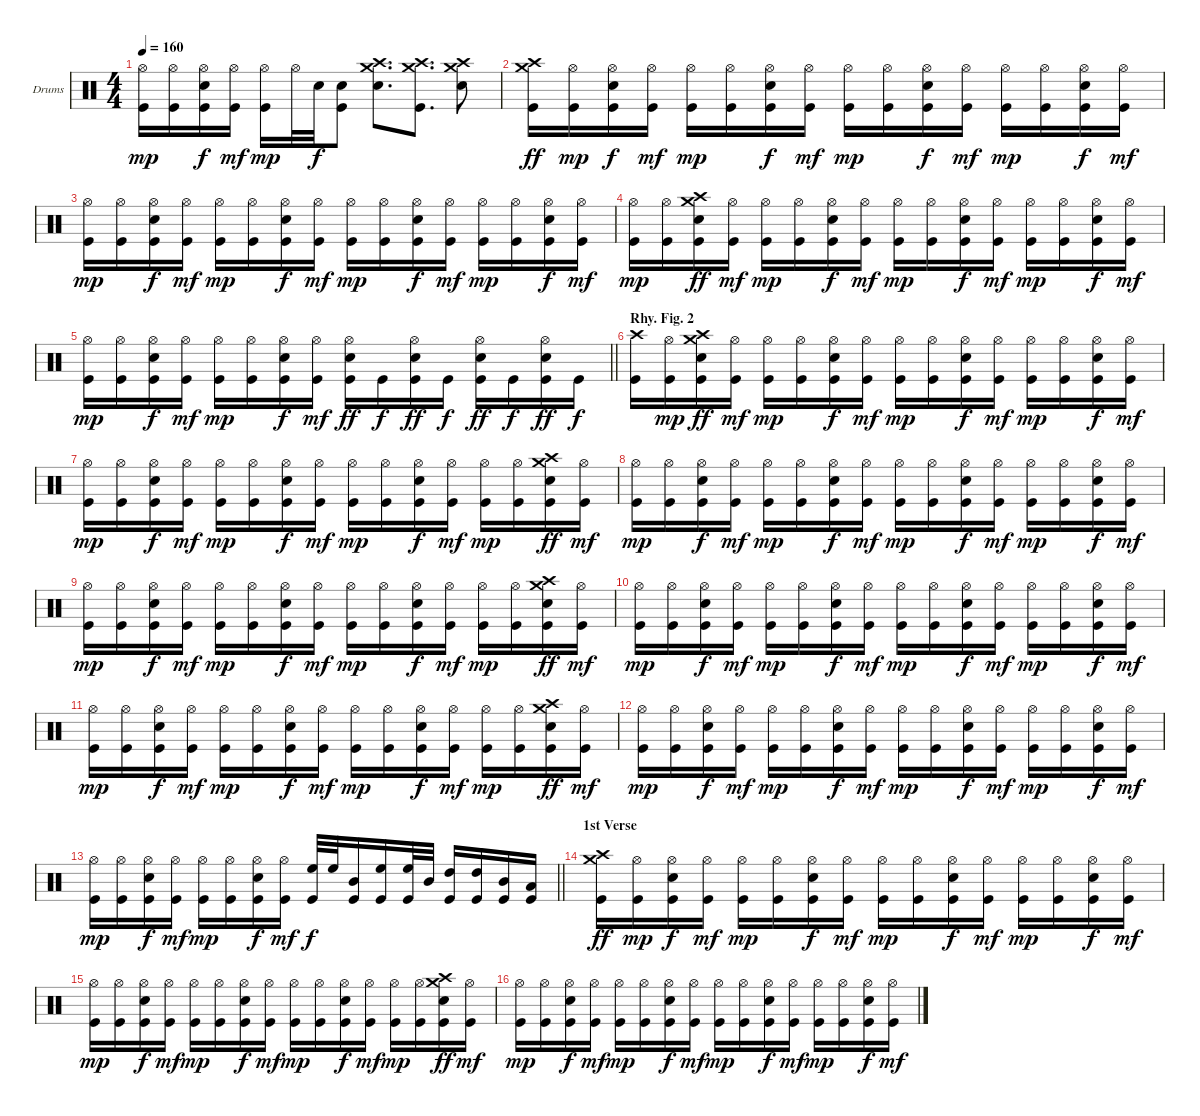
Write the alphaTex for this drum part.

\bracketExtendMode groupsimilarinstruments
\firstSystemTrackNameOrientation horizontal
\otherSystemsTrackNameOrientation horizontal
\track ("Drumkit" "Drums") {instrument percussion}
\staff {score}
\articulation defaults
\ts (4 4)
\tempo 160
\clef neutral
\ks c
("Hi-Hat (open)" "Kick (hit)").16{dy mp} ("Hi-Hat (open)" "Kick (hit)").16 ("Hi-Hat (open)" "Snare (hit) 2" "Kick (hit)").16{dy f} ("Hi-Hat (open)" "Kick (hit)").16{dy mf} ("Hi-Hat (open)" "Kick (hit)").16{dy mp} "Hi-Hat (open)".32 "Snare (hit) 2".32{dy f} ("Snare (hit) 2" "Kick (hit)").8 ("Crash medium (hit)" "Crash high (hit)" "Snare (hit) 2").8{d} ("Crash medium (hit)" "Crash high (hit)" "Kick (hit)").8{d} ("Crash medium (hit)" "Crash high (hit)" "Snare (hit) 2").8 |
("Crash medium (hit)" "Crash high (hit)" "Kick (hit)").16{dy ff} ("Hi-Hat (open)" "Kick (hit)").16{dy mp} ("Hi-Hat (open)" "Snare (hit) 2" "Kick (hit)").16{dy f} ("Hi-Hat (open)" "Kick (hit)").16{dy mf} ("Hi-Hat (open)" "Kick (hit)").16{dy mp} ("Hi-Hat (open)" "Kick (hit)").16 ("Hi-Hat (open)" "Snare (hit) 2" "Kick (hit)").16{dy f} ("Hi-Hat (open)" "Kick (hit)").16{dy mf} ("Hi-Hat (open)" "Kick (hit)").16{dy mp} ("Hi-Hat (open)" "Kick (hit)").16 ("Hi-Hat (open)" "Snare (hit) 2" "Kick (hit)").16{dy f} ("Hi-Hat (open)" "Kick (hit)").16{dy mf} ("Hi-Hat (open)" "Kick (hit)").16{dy mp} ("Hi-Hat (open)" "Kick (hit)").16 ("Hi-Hat (open)" "Snare (hit) 2" "Kick (hit)").16{dy f} ("Hi-Hat (open)" "Kick (hit)").16{dy mf} |
("Hi-Hat (open)" "Kick (hit)").16{dy mp} ("Hi-Hat (open)" "Kick (hit)").16 ("Hi-Hat (open)" "Snare (hit) 2" "Kick (hit)").16{dy f} ("Hi-Hat (open)" "Kick (hit)").16{dy mf} ("Hi-Hat (open)" "Kick (hit)").16{dy mp} ("Hi-Hat (open)" "Kick (hit)").16 ("Hi-Hat (open)" "Snare (hit) 2" "Kick (hit)").16{dy f} ("Hi-Hat (open)" "Kick (hit)").16{dy mf} ("Hi-Hat (open)" "Kick (hit)").16{dy mp} ("Hi-Hat (open)" "Kick (hit)").16 ("Hi-Hat (open)" "Snare (hit) 2" "Kick (hit)").16{dy f} ("Hi-Hat (open)" "Kick (hit)").16{dy mf} ("Hi-Hat (open)" "Kick (hit)").16{dy mp} ("Hi-Hat (open)" "Kick (hit)").16 ("Hi-Hat (open)" "Snare (hit) 2" "Kick (hit)").16{dy f} ("Hi-Hat (open)" "Kick (hit)").16{dy mf} |
("Hi-Hat (open)" "Kick (hit)").16{dy mp} ("Hi-Hat (open)" "Kick (hit)").16 ("Crash medium (hit)" "Crash high (hit)" "Snare (hit) 2" "Kick (hit)").16{dy ff} ("Hi-Hat (open)" "Kick (hit)").16{dy mf} ("Hi-Hat (open)" "Kick (hit)").16{dy mp} ("Hi-Hat (open)" "Kick (hit)").16 ("Hi-Hat (open)" "Snare (hit) 2" "Kick (hit)").16{dy f} ("Hi-Hat (open)" "Kick (hit)").16{dy mf} ("Hi-Hat (open)" "Kick (hit)").16{dy mp} ("Hi-Hat (open)" "Kick (hit)").16 ("Hi-Hat (open)" "Snare (hit) 2" "Kick (hit)").16{dy f} ("Hi-Hat (open)" "Kick (hit)").16{dy mf} ("Hi-Hat (open)" "Kick (hit)").16{dy mp} ("Hi-Hat (open)" "Kick (hit)").16 ("Hi-Hat (open)" "Snare (hit) 2" "Kick (hit)").16{dy f} ("Hi-Hat (open)" "Kick (hit)").16{dy mf} |
\barLineRight lightlight
("Hi-Hat (open)" "Kick (hit)").16{dy mp} ("Hi-Hat (open)" "Kick (hit)").16 ("Hi-Hat (open)" "Snare (hit) 2" "Kick (hit)").16{dy f} ("Hi-Hat (open)" "Kick (hit)").16{dy mf} ("Hi-Hat (open)" "Kick (hit)").16{dy mp} ("Hi-Hat (open)" "Kick (hit)").16 ("Hi-Hat (open)" "Snare (hit) 2" "Kick (hit)").16{dy f} ("Hi-Hat (open)" "Kick (hit)").16{dy mf} ("Hi-Hat (open)" "Snare (hit) 2" "Kick (hit)").16{dy ff} "Kick (hit)".16{dy f} ("Hi-Hat (open)" "Snare (hit) 2" "Kick (hit)").16{dy ff} "Kick (hit)".16{dy f} ("Hi-Hat (open)" "Snare (hit) 2" "Kick (hit)").16{dy ff} "Kick (hit)".16{dy f} ("Hi-Hat (open)" "Snare (hit) 2" "Kick (hit)").16{dy ff} "Kick (hit)".16{dy f} |
\section ("" "Rhy. Fig. 2")
("Crash high (hit)" "Kick (hit)").16 ("Hi-Hat (open)" "Kick (hit)").16{dy mp} ("Crash medium (hit)" "Crash high (hit)" "Snare (hit) 2" "Kick (hit)").16{dy ff} ("Hi-Hat (open)" "Kick (hit)").16{dy mf} ("Hi-Hat (open)" "Kick (hit)").16{dy mp} ("Hi-Hat (open)" "Kick (hit)").16 ("Hi-Hat (open)" "Snare (hit) 2" "Kick (hit)").16{dy f} ("Hi-Hat (open)" "Kick (hit)").16{dy mf} ("Hi-Hat (open)" "Kick (hit)").16{dy mp} ("Hi-Hat (open)" "Kick (hit)").16 ("Hi-Hat (open)" "Snare (hit) 2" "Kick (hit)").16{dy f} ("Hi-Hat (open)" "Kick (hit)").16{dy mf} ("Hi-Hat (open)" "Kick (hit)").16{dy mp} ("Hi-Hat (open)" "Kick (hit)").16 ("Hi-Hat (open)" "Snare (hit) 2" "Kick (hit)").16{dy f} ("Hi-Hat (open)" "Kick (hit)").16{dy mf} |
("Hi-Hat (open)" "Kick (hit)").16{dy mp} ("Hi-Hat (open)" "Kick (hit)").16 ("Hi-Hat (open)" "Snare (hit) 2" "Kick (hit)").16{dy f} ("Hi-Hat (open)" "Kick (hit)").16{dy mf} ("Hi-Hat (open)" "Kick (hit)").16{dy mp} ("Hi-Hat (open)" "Kick (hit)").16 ("Hi-Hat (open)" "Snare (hit) 2" "Kick (hit)").16{dy f} ("Hi-Hat (open)" "Kick (hit)").16{dy mf} ("Hi-Hat (open)" "Kick (hit)").16{dy mp} ("Hi-Hat (open)" "Kick (hit)").16 ("Hi-Hat (open)" "Snare (hit) 2" "Kick (hit)").16{dy f} ("Hi-Hat (open)" "Kick (hit)").16{dy mf} ("Hi-Hat (open)" "Kick (hit)").16{dy mp} ("Hi-Hat (open)" "Kick (hit)").16 ("Crash medium (hit)" "Crash high (hit)" "Snare (hit) 2" "Kick (hit)").16{dy ff} ("Hi-Hat (open)" "Kick (hit)").16{dy mf} |
("Hi-Hat (open)" "Kick (hit)").16{dy mp} ("Hi-Hat (open)" "Kick (hit)").16 ("Hi-Hat (open)" "Snare (hit) 2" "Kick (hit)").16{dy f} ("Hi-Hat (open)" "Kick (hit)").16{dy mf} ("Hi-Hat (open)" "Kick (hit)").16{dy mp} ("Hi-Hat (open)" "Kick (hit)").16 ("Hi-Hat (open)" "Snare (hit) 2" "Kick (hit)").16{dy f} ("Hi-Hat (open)" "Kick (hit)").16{dy mf} ("Hi-Hat (open)" "Kick (hit)").16{dy mp} ("Hi-Hat (open)" "Kick (hit)").16 ("Hi-Hat (open)" "Snare (hit) 2" "Kick (hit)").16{dy f} ("Hi-Hat (open)" "Kick (hit)").16{dy mf} ("Hi-Hat (open)" "Kick (hit)").16{dy mp} ("Hi-Hat (open)" "Kick (hit)").16 ("Hi-Hat (open)" "Snare (hit) 2" "Kick (hit)").16{dy f} ("Hi-Hat (open)" "Kick (hit)").16{dy mf} |
("Hi-Hat (open)" "Kick (hit)").16{dy mp} ("Hi-Hat (open)" "Kick (hit)").16 ("Hi-Hat (open)" "Snare (hit) 2" "Kick (hit)").16{dy f} ("Hi-Hat (open)" "Kick (hit)").16{dy mf} ("Hi-Hat (open)" "Kick (hit)").16{dy mp} ("Hi-Hat (open)" "Kick (hit)").16 ("Hi-Hat (open)" "Snare (hit) 2" "Kick (hit)").16{dy f} ("Hi-Hat (open)" "Kick (hit)").16{dy mf} ("Hi-Hat (open)" "Kick (hit)").16{dy mp} ("Hi-Hat (open)" "Kick (hit)").16 ("Hi-Hat (open)" "Snare (hit) 2" "Kick (hit)").16{dy f} ("Hi-Hat (open)" "Kick (hit)").16{dy mf} ("Hi-Hat (open)" "Kick (hit)").16{dy mp} ("Hi-Hat (open)" "Kick (hit)").16 ("Crash medium (hit)" "Crash high (hit)" "Snare (hit) 2" "Kick (hit)").16{dy ff} ("Hi-Hat (open)" "Kick (hit)").16{dy mf} |
("Hi-Hat (open)" "Kick (hit)").16{dy mp} ("Hi-Hat (open)" "Kick (hit)").16 ("Hi-Hat (open)" "Snare (hit) 2" "Kick (hit)").16{dy f} ("Hi-Hat (open)" "Kick (hit)").16{dy mf} ("Hi-Hat (open)" "Kick (hit)").16{dy mp} ("Hi-Hat (open)" "Kick (hit)").16 ("Hi-Hat (open)" "Snare (hit) 2" "Kick (hit)").16{dy f} ("Hi-Hat (open)" "Kick (hit)").16{dy mf} ("Hi-Hat (open)" "Kick (hit)").16{dy mp} ("Hi-Hat (open)" "Kick (hit)").16 ("Hi-Hat (open)" "Snare (hit) 2" "Kick (hit)").16{dy f} ("Hi-Hat (open)" "Kick (hit)").16{dy mf} ("Hi-Hat (open)" "Kick (hit)").16{dy mp} ("Hi-Hat (open)" "Kick (hit)").16 ("Hi-Hat (open)" "Snare (hit) 2" "Kick (hit)").16{dy f} ("Hi-Hat (open)" "Kick (hit)").16{dy mf} |
("Hi-Hat (open)" "Kick (hit)").16{dy mp} ("Hi-Hat (open)" "Kick (hit)").16 ("Hi-Hat (open)" "Snare (hit) 2" "Kick (hit)").16{dy f} ("Hi-Hat (open)" "Kick (hit)").16{dy mf} ("Hi-Hat (open)" "Kick (hit)").16{dy mp} ("Hi-Hat (open)" "Kick (hit)").16 ("Hi-Hat (open)" "Snare (hit) 2" "Kick (hit)").16{dy f} ("Hi-Hat (open)" "Kick (hit)").16{dy mf} ("Hi-Hat (open)" "Kick (hit)").16{dy mp} ("Hi-Hat (open)" "Kick (hit)").16 ("Hi-Hat (open)" "Snare (hit) 2" "Kick (hit)").16{dy f} ("Hi-Hat (open)" "Kick (hit)").16{dy mf} ("Hi-Hat (open)" "Kick (hit)").16{dy mp} ("Hi-Hat (open)" "Kick (hit)").16 ("Crash medium (hit)" "Crash high (hit)" "Snare (hit) 2" "Kick (hit)").16{dy ff} ("Hi-Hat (open)" "Kick (hit)").16{dy mf} |
("Hi-Hat (open)" "Kick (hit)").16{dy mp} ("Hi-Hat (open)" "Kick (hit)").16 ("Hi-Hat (open)" "Snare (hit) 2" "Kick (hit)").16{dy f} ("Hi-Hat (open)" "Kick (hit)").16{dy mf} ("Hi-Hat (open)" "Kick (hit)").16{dy mp} ("Hi-Hat (open)" "Kick (hit)").16 ("Hi-Hat (open)" "Snare (hit) 2" "Kick (hit)").16{dy f} ("Hi-Hat (open)" "Kick (hit)").16{dy mf} ("Hi-Hat (open)" "Kick (hit)").16{dy mp} ("Hi-Hat (open)" "Kick (hit)").16 ("Hi-Hat (open)" "Snare (hit) 2" "Kick (hit)").16{dy f} ("Hi-Hat (open)" "Kick (hit)").16{dy mf} ("Hi-Hat (open)" "Kick (hit)").16{dy mp} ("Hi-Hat (open)" "Kick (hit)").16 ("Hi-Hat (open)" "Snare (hit) 2" "Kick (hit)").16{dy f} ("Hi-Hat (open)" "Kick (hit)").16{dy mf} |
\barLineRight lightlight
("Hi-Hat (open)" "Kick (hit)").16{dy mp} ("Hi-Hat (open)" "Kick (hit)").16 ("Hi-Hat (open)" "Snare (hit) 2" "Kick (hit)").16{dy f} ("Hi-Hat (open)" "Kick (hit)").16{dy mf} ("Hi-Hat (open)" "Kick (hit)").16{dy mp} ("Hi-Hat (open)" "Kick (hit)").16 ("Hi-Hat (open)" "Snare (hit) 2" "Kick (hit)").16{dy f} ("Hi-Hat (open)" "Kick (hit)").16{dy mf} ("High Floor Tom (hit)" "Kick (hit)").32{dy f} "High Floor Tom (hit)".32 ("Mid Tom (hit)" "Kick (hit)").16 ("High Floor Tom (hit)" "Kick (hit)").16 ("High Floor Tom (hit)" "Kick (hit)").32 "Mid Tom (hit)".32 ("High Tom (hit)" "Kick (hit)").16 ("High Tom (hit)" "Kick (hit)").16 ("Mid Tom (hit)" "Kick (hit)").16 ("Low Tom (hit)" "Kick (hit)").16 |
\section ("" "1st Verse")
("Crash medium (hit)" "Crash high (hit)" "Kick (hit)").16{dy ff} ("Hi-Hat (open)" "Kick (hit)").16{dy mp} ("Hi-Hat (open)" "Snare (hit) 2" "Kick (hit)").16{dy f} ("Hi-Hat (open)" "Kick (hit)").16{dy mf} ("Hi-Hat (open)" "Kick (hit)").16{dy mp} ("Hi-Hat (open)" "Kick (hit)").16 ("Hi-Hat (open)" "Snare (hit) 2" "Kick (hit)").16{dy f} ("Hi-Hat (open)" "Kick (hit)").16{dy mf} ("Hi-Hat (open)" "Kick (hit)").16{dy mp} ("Hi-Hat (open)" "Kick (hit)").16 ("Hi-Hat (open)" "Snare (hit) 2" "Kick (hit)").16{dy f} ("Hi-Hat (open)" "Kick (hit)").16{dy mf} ("Hi-Hat (open)" "Kick (hit)").16{dy mp} ("Hi-Hat (open)" "Kick (hit)").16 ("Hi-Hat (open)" "Snare (hit) 2" "Kick (hit)").16{dy f} ("Hi-Hat (open)" "Kick (hit)").16{dy mf} |
("Hi-Hat (open)" "Kick (hit)").16{dy mp} ("Hi-Hat (open)" "Kick (hit)").16 ("Hi-Hat (open)" "Snare (hit) 2" "Kick (hit)").16{dy f} ("Hi-Hat (open)" "Kick (hit)").16{dy mf} ("Hi-Hat (open)" "Kick (hit)").16{dy mp} ("Hi-Hat (open)" "Kick (hit)").16 ("Hi-Hat (open)" "Snare (hit) 2" "Kick (hit)").16{dy f} ("Hi-Hat (open)" "Kick (hit)").16{dy mf} ("Hi-Hat (open)" "Kick (hit)").16{dy mp} ("Hi-Hat (open)" "Kick (hit)").16 ("Hi-Hat (open)" "Snare (hit) 2" "Kick (hit)").16{dy f} ("Hi-Hat (open)" "Kick (hit)").16{dy mf} ("Hi-Hat (open)" "Kick (hit)").16{dy mp} ("Hi-Hat (open)" "Kick (hit)").16 ("Crash medium (hit)" "Crash high (hit)" "Snare (hit) 2" "Kick (hit)").16{dy ff} ("Hi-Hat (open)" "Kick (hit)").16{dy mf} |
("Hi-Hat (open)" "Kick (hit)").16{dy mp} ("Hi-Hat (open)" "Kick (hit)").16 ("Hi-Hat (open)" "Snare (hit) 2" "Kick (hit)").16{dy f} ("Hi-Hat (open)" "Kick (hit)").16{dy mf} ("Hi-Hat (open)" "Kick (hit)").16{dy mp} ("Hi-Hat (open)" "Kick (hit)").16 ("Hi-Hat (open)" "Snare (hit) 2" "Kick (hit)").16{dy f} ("Hi-Hat (open)" "Kick (hit)").16{dy mf} ("Hi-Hat (open)" "Kick (hit)").16{dy mp} ("Hi-Hat (open)" "Kick (hit)").16 ("Hi-Hat (open)" "Snare (hit) 2" "Kick (hit)").16{dy f} ("Hi-Hat (open)" "Kick (hit)").16{dy mf} ("Hi-Hat (open)" "Kick (hit)").16{dy mp} ("Hi-Hat (open)" "Kick (hit)").16 ("Hi-Hat (open)" "Snare (hit) 2" "Kick (hit)").16{dy f} ("Hi-Hat (open)" "Kick (hit)").16{dy mf}
